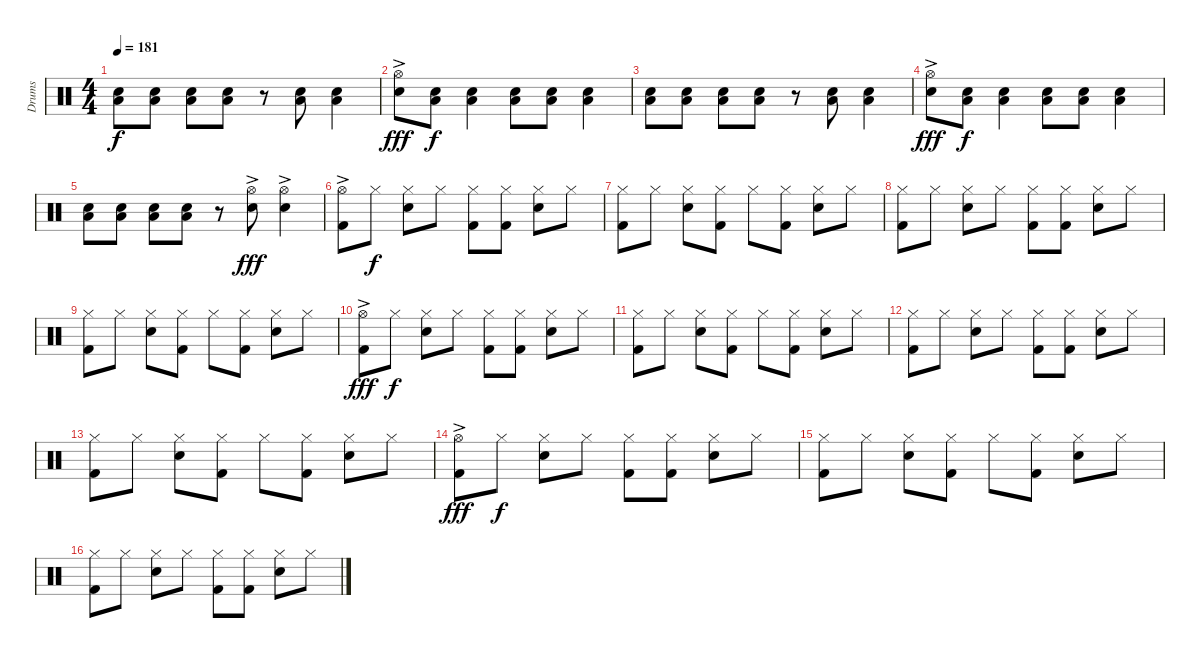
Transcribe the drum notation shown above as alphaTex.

\track ("Drums" "Drums") {instrument percussion}
\staff {score}
\articulation defaults
\ts (4 4)
\tempo 181
\clef neutral
\ks c
("Snare (hit) 2" "Low Tom (hit)").8{dy f} ("Snare (hit) 2" "Low Tom (hit)").8 ("Snare (hit) 2" "Low Tom (hit)").8 ("Snare (hit) 2" "Low Tom (hit)").8 r.8 ("Snare (hit) 2" "Low Tom (hit)").8 ("Snare (hit) 2" "Low Tom (hit)").4 |
("Hi-Hat (open)"{ac} "Snare (hit) 2").8{dy fff} ("Snare (hit) 2" "Low Tom (hit)").8{dy f} ("Snare (hit) 2" "Low Tom (hit)").4 ("Snare (hit) 2" "Low Tom (hit)").8 ("Snare (hit) 2" "Low Tom (hit)").8 ("Snare (hit) 2" "Low Tom (hit)").4 |
("Snare (hit) 2" "Low Tom (hit)").8 ("Snare (hit) 2" "Low Tom (hit)").8 ("Snare (hit) 2" "Low Tom (hit)").8 ("Snare (hit) 2" "Low Tom (hit)").8 r.8 ("Snare (hit) 2" "Low Tom (hit)").8 ("Snare (hit) 2" "Low Tom (hit)").4 |
("Hi-Hat (open)"{ac} "Snare (hit) 2").8{dy fff} ("Snare (hit) 2" "Low Tom (hit)").8{dy f} ("Snare (hit) 2" "Low Tom (hit)").4 ("Snare (hit) 2" "Low Tom (hit)").8 ("Snare (hit) 2" "Low Tom (hit)").8 ("Snare (hit) 2" "Low Tom (hit)").4 |
("Snare (hit) 2" "Low Tom (hit)").8 ("Snare (hit) 2" "Low Tom (hit)").8 ("Snare (hit) 2" "Low Tom (hit)").8 ("Snare (hit) 2" "Low Tom (hit)").8 r.8 ("Hi-Hat (open)"{ac} "Snare (hit) 2").8{dy fff} ("Hi-Hat (open)"{ac} "Snare (hit) 2").4 |
("Hi-Hat (open)"{ac} "Kick (hit) 2").8 "Hi-Hat (closed)".8{dy f} ("Hi-Hat (closed)" "Snare (hit) 2").8 "Hi-Hat (closed)".8 ("Hi-Hat (closed)" "Kick (hit) 2").8 ("Hi-Hat (closed)" "Kick (hit) 2").8 ("Hi-Hat (closed)" "Snare (hit) 2").8 "Hi-Hat (closed)".8 |
("Hi-Hat (closed)" "Kick (hit) 2").8 "Hi-Hat (closed)".8 ("Hi-Hat (closed)" "Snare (hit) 2").8 ("Hi-Hat (closed)" "Kick (hit) 2").8 "Hi-Hat (closed)".8 ("Hi-Hat (closed)" "Kick (hit) 2").8 ("Hi-Hat (closed)" "Snare (hit) 2").8 "Hi-Hat (closed)".8 |
("Hi-Hat (closed)" "Kick (hit) 2").8 "Hi-Hat (closed)".8 ("Hi-Hat (closed)" "Snare (hit) 2").8 "Hi-Hat (closed)".8 ("Hi-Hat (closed)" "Kick (hit) 2").8 ("Hi-Hat (closed)" "Kick (hit) 2").8 ("Hi-Hat (closed)" "Snare (hit) 2").8 "Hi-Hat (closed)".8 |
("Hi-Hat (closed)" "Kick (hit) 2").8 "Hi-Hat (closed)".8 ("Hi-Hat (closed)" "Snare (hit) 2").8 ("Hi-Hat (closed)" "Kick (hit) 2").8 "Hi-Hat (closed)".8 ("Hi-Hat (closed)" "Kick (hit) 2").8 ("Hi-Hat (closed)" "Snare (hit) 2").8 "Hi-Hat (closed)".8 |
("Hi-Hat (open)"{ac} "Kick (hit) 2").8{dy fff} "Hi-Hat (closed)".8{dy f} ("Hi-Hat (closed)" "Snare (hit) 2").8 "Hi-Hat (closed)".8 ("Hi-Hat (closed)" "Kick (hit) 2").8 ("Hi-Hat (closed)" "Kick (hit) 2").8 ("Hi-Hat (closed)" "Snare (hit) 2").8 "Hi-Hat (closed)".8 |
("Hi-Hat (closed)" "Kick (hit) 2").8 "Hi-Hat (closed)".8 ("Hi-Hat (closed)" "Snare (hit) 2").8 ("Hi-Hat (closed)" "Kick (hit) 2").8 "Hi-Hat (closed)".8 ("Hi-Hat (closed)" "Kick (hit) 2").8 ("Hi-Hat (closed)" "Snare (hit) 2").8 "Hi-Hat (closed)".8 |
("Hi-Hat (closed)" "Kick (hit) 2").8 "Hi-Hat (closed)".8 ("Hi-Hat (closed)" "Snare (hit) 2").8 "Hi-Hat (closed)".8 ("Hi-Hat (closed)" "Kick (hit) 2").8 ("Hi-Hat (closed)" "Kick (hit) 2").8 ("Hi-Hat (closed)" "Snare (hit) 2").8 "Hi-Hat (closed)".8 |
("Hi-Hat (closed)" "Kick (hit) 2").8 "Hi-Hat (closed)".8 ("Hi-Hat (closed)" "Snare (hit) 2").8 ("Hi-Hat (closed)" "Kick (hit) 2").8 "Hi-Hat (closed)".8 ("Hi-Hat (closed)" "Kick (hit) 2").8 ("Hi-Hat (closed)" "Snare (hit) 2").8 "Hi-Hat (closed)".8 |
("Hi-Hat (open)"{ac} "Kick (hit) 2").8{dy fff} "Hi-Hat (closed)".8{dy f} ("Hi-Hat (closed)" "Snare (hit) 2").8 "Hi-Hat (closed)".8 ("Hi-Hat (closed)" "Kick (hit) 2").8 ("Hi-Hat (closed)" "Kick (hit) 2").8 ("Hi-Hat (closed)" "Snare (hit) 2").8 "Hi-Hat (closed)".8 |
("Hi-Hat (closed)" "Kick (hit) 2").8 "Hi-Hat (closed)".8 ("Hi-Hat (closed)" "Snare (hit) 2").8 ("Hi-Hat (closed)" "Kick (hit) 2").8 "Hi-Hat (closed)".8 ("Hi-Hat (closed)" "Kick (hit) 2").8 ("Hi-Hat (closed)" "Snare (hit) 2").8 "Hi-Hat (closed)".8 |
("Hi-Hat (closed)" "Kick (hit) 2").8 "Hi-Hat (closed)".8 ("Hi-Hat (closed)" "Snare (hit) 2").8 "Hi-Hat (closed)".8 ("Hi-Hat (closed)" "Kick (hit) 2").8 ("Hi-Hat (closed)" "Kick (hit) 2").8 ("Hi-Hat (closed)" "Snare (hit) 2").8 "Hi-Hat (closed)".8
